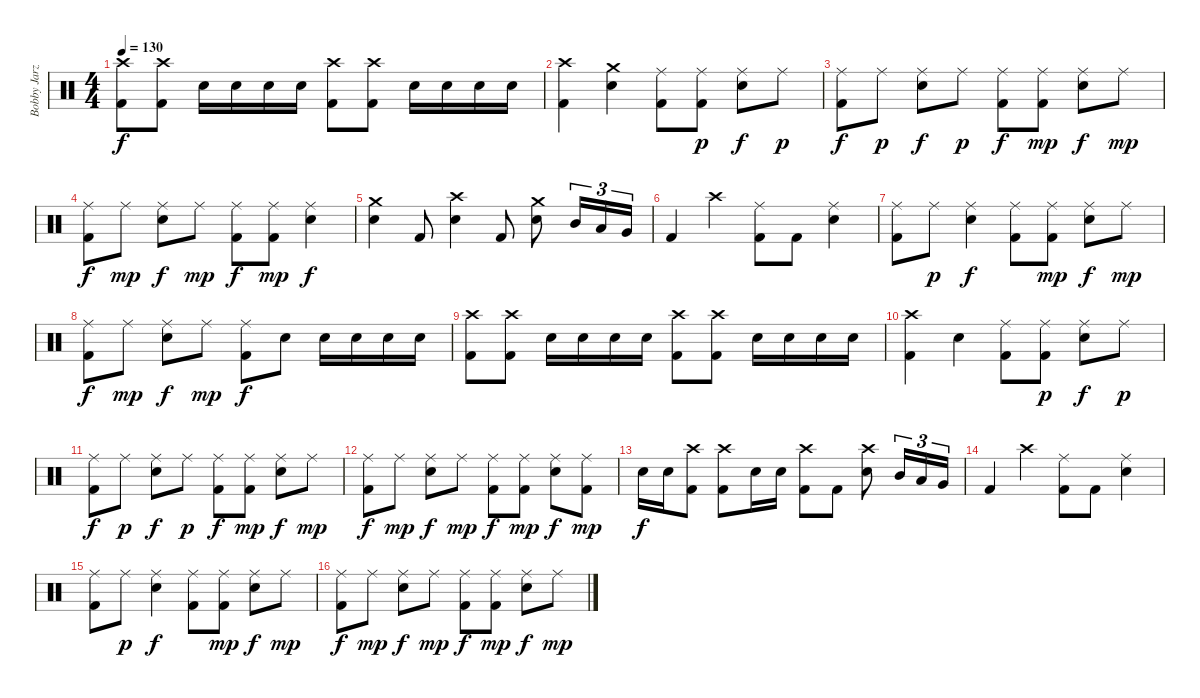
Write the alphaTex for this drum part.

\track ("Bobby Jarzombek" "Bobby Jarz") {instrument percussion}
\staff {score}
\articulation defaults
\ts (4 4)
\tempo 130
\clef neutral
\ks c
("Kick (hit) 2" "Crash high (hit)").8{dy f} ("Kick (hit) 2" "Crash high (hit)").8 "Snare (hit) 2".16 "Snare (hit) 2".16 "Snare (hit) 2".16 "Snare (hit) 2".16 ("Kick (hit) 2" "Crash high (hit)").8 ("Kick (hit) 2" "Crash high (hit)").8 "Snare (hit) 2".16 "Snare (hit) 2".16 "Snare (hit) 2".16 "Snare (hit) 2".16 |
("Kick (hit) 2" "Crash high (hit)").4 ("Crash medium (hit)" "Snare (hit) 2").4 ("Kick (hit) 2" "Ride (middle)").8 ("Kick (hit) 2" "Ride (middle)").8{dy p} ("Ride (middle)" "Snare (hit) 2").8{dy f} "Ride (middle)".8{dy p} |
("Kick (hit) 2" "Ride (middle)").8{dy f} "Ride (middle)".8{dy p} ("Ride (middle)" "Snare (hit) 2").8{dy f} "Ride (middle)".8{dy p} ("Kick (hit) 2" "Ride (middle)").8{dy f} ("Kick (hit) 2" "Ride (middle)").8{dy mp} ("Ride (middle)" "Snare (hit) 2").8{dy f} "Ride (middle)".8{dy mp} |
("Kick (hit) 2" "Ride (middle)").8{dy f} "Ride (middle)".8{dy mp} ("Ride (middle)" "Snare (hit) 2").8{dy f} "Ride (middle)".8{dy mp} ("Kick (hit) 2" "Ride (middle)").8{dy f} ("Kick (hit) 2" "Ride (middle)").8{dy mp} ("Ride (middle)" "Snare (hit) 2").4{dy f} |
("Crash medium (hit)" "Snare (hit) 2").4 "Kick (hit) 2".8 ("Crash high (hit)" "Snare (hit) 2").4 "Kick (hit) 2".8 ("Crash medium (hit)" "Snare (hit) 2").8 "Mid Tom (hit)".16{tu (3 2)} "Low Tom (hit)".16{tu (3 2)} "Very Low Tom (hit)".16{tu (3 2)} |
"Kick (hit) 2".4 "Crash high (hit)".4 ("Kick (hit) 2" "Ride (middle)").8 "Kick (hit) 2".8 ("Ride (middle)" "Snare (hit) 2").4 |
("Kick (hit) 2" "Ride (middle)").8 "Ride (middle)".8{dy p} ("Ride (middle)" "Snare (hit) 2").4{dy f} ("Kick (hit) 2" "Ride (middle)").8 ("Kick (hit) 2" "Ride (middle)").8{dy mp} ("Ride (middle)" "Snare (hit) 2").8{dy f} "Ride (middle)".8{dy mp} |
("Kick (hit) 2" "Ride (middle)").8{dy f} "Ride (middle)".8{dy mp} ("Ride (middle)" "Snare (hit) 2").8{dy f} "Ride (middle)".8{dy mp} ("Kick (hit) 2" "Ride (middle)").8{dy f} "Snare (hit) 2".8 "Snare (hit) 2".16 "Snare (hit) 2".16 "Snare (hit) 2".16 "Snare (hit) 2".16 |
("Kick (hit) 2" "Crash high (hit)").8 ("Kick (hit) 2" "Crash high (hit)").8 "Snare (hit) 2".16 "Snare (hit) 2".16 "Snare (hit) 2".16 "Snare (hit) 2".16 ("Kick (hit) 2" "Crash high (hit)").8 ("Kick (hit) 2" "Crash high (hit)").8 "Snare (hit) 2".16 "Snare (hit) 2".16 "Snare (hit) 2".16 "Snare (hit) 2".16 |
("Kick (hit) 2" "Crash high (hit)").4 "Snare (hit) 2".4 ("Kick (hit) 2" "Ride (middle)").8 ("Kick (hit) 2" "Ride (middle)").8{dy p} ("Ride (middle)" "Snare (hit) 2").8{dy f} "Ride (middle)".8{dy p} |
("Kick (hit) 2" "Ride (middle)").8{dy f} "Ride (middle)".8{dy p} ("Ride (middle)" "Snare (hit) 2").8{dy f} "Ride (middle)".8{dy p} ("Kick (hit) 2" "Ride (middle)").8{dy f} ("Kick (hit) 2" "Ride (middle)").8{dy mp} ("Ride (middle)" "Snare (hit) 2").8{dy f} "Ride (middle)".8{dy mp} |
("Kick (hit) 2" "Ride (middle)").8{dy f} "Ride (middle)".8{dy mp} ("Ride (middle)" "Snare (hit) 2").8{dy f} "Ride (middle)".8{dy mp} ("Kick (hit) 2" "Ride (middle)").8{dy f} ("Kick (hit) 2" "Ride (middle)").8{dy mp} ("Ride (middle)" "Snare (hit) 2").8{dy f} ("Kick (hit) 2" "Ride (middle)").8{dy mp} |
"Snare (hit) 2".16{dy f} "Snare (hit) 2".16 ("Kick (hit) 2" "Crash high (hit)").8 ("Kick (hit) 2" "Crash high (hit)").8 "Snare (hit) 2".16 "Snare (hit) 2".16 ("Kick (hit) 2" "Crash high (hit)").8 "Kick (hit) 2".8 ("Crash high (hit)" "Snare (hit) 2").8 "Mid Tom (hit)".16{tu (3 2)} "Low Tom (hit)".16{tu (3 2)} "Very Low Tom (hit)".16{tu (3 2)} |
"Kick (hit) 2".4 "Crash high (hit)".4 ("Kick (hit) 2" "Ride (middle)").8 "Kick (hit) 2".8 ("Ride (middle)" "Snare (hit) 2").4 |
("Kick (hit) 2" "Ride (middle)").8 "Ride (middle)".8{dy p} ("Ride (middle)" "Snare (hit) 2").4{dy f} ("Kick (hit) 2" "Ride (middle)").8 ("Kick (hit) 2" "Ride (middle)").8{dy mp} ("Ride (middle)" "Snare (hit) 2").8{dy f} "Ride (middle)".8{dy mp} |
("Kick (hit) 2" "Ride (middle)").8{dy f} "Ride (middle)".8{dy mp} ("Ride (middle)" "Snare (hit) 2").8{dy f} "Ride (middle)".8{dy mp} ("Kick (hit) 2" "Ride (middle)").8{dy f} ("Kick (hit) 2" "Ride (middle)").8{dy mp} ("Ride (middle)" "Snare (hit) 2").8{dy f} "Ride (middle)".8{dy mp}
